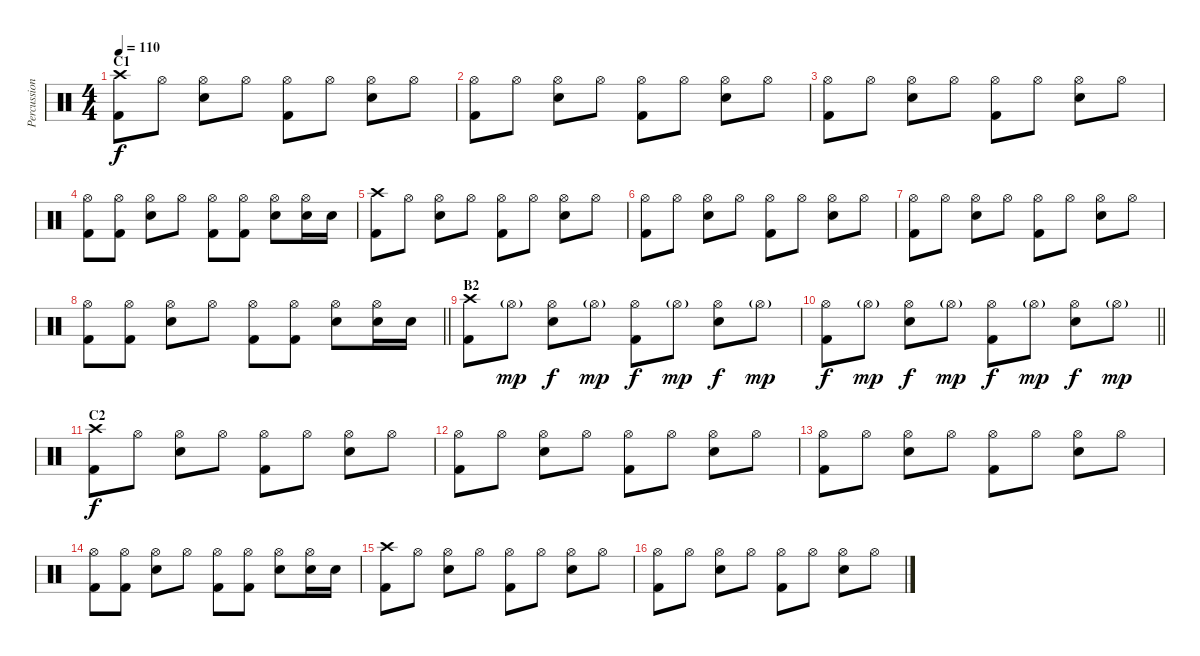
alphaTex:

\track ("Percussion" "Percussion") {instrument percussion}
\staff {score}
\articulation defaults
\ts (4 4)
\section ("" "C1")
\tempo 110
\clef neutral
\ks c
("Crash high (hit)" "Kick (hit) 2").8{dy f} "Hi-Hat (open)".8 ("Hi-Hat (open)" "Snare (hit) 2").8 "Hi-Hat (open)".8 ("Hi-Hat (open)" "Kick (hit) 2").8 "Hi-Hat (open)".8 ("Hi-Hat (open)" "Snare (hit) 2").8 "Hi-Hat (open)".8 |
("Hi-Hat (open)" "Kick (hit) 2").8 "Hi-Hat (open)".8 ("Hi-Hat (open)" "Snare (hit) 2").8 "Hi-Hat (open)".8 ("Hi-Hat (open)" "Kick (hit) 2").8 "Hi-Hat (open)".8 ("Hi-Hat (open)" "Snare (hit) 2").8 "Hi-Hat (open)".8 |
("Hi-Hat (open)" "Kick (hit) 2").8 "Hi-Hat (open)".8 ("Hi-Hat (open)" "Snare (hit) 2").8 "Hi-Hat (open)".8 ("Hi-Hat (open)" "Kick (hit) 2").8 "Hi-Hat (open)".8 ("Hi-Hat (open)" "Snare (hit) 2").8 "Hi-Hat (open)".8 |
("Hi-Hat (open)" "Kick (hit) 2").8 ("Hi-Hat (open)" "Kick (hit) 2").8 ("Hi-Hat (open)" "Snare (hit) 2").8 "Hi-Hat (open)".8 ("Hi-Hat (open)" "Kick (hit) 2").8 ("Hi-Hat (open)" "Kick (hit) 2").8 ("Hi-Hat (open)" "Snare (hit) 2").8 ("Hi-Hat (open)" "Snare (hit) 2").16 "Snare (hit) 2".16 |
("Crash high (hit)" "Kick (hit) 2").8 "Hi-Hat (open)".8 ("Hi-Hat (open)" "Snare (hit) 2").8 "Hi-Hat (open)".8 ("Hi-Hat (open)" "Kick (hit) 2").8 "Hi-Hat (open)".8 ("Hi-Hat (open)" "Snare (hit) 2").8 "Hi-Hat (open)".8 |
("Hi-Hat (open)" "Kick (hit) 2").8 "Hi-Hat (open)".8 ("Hi-Hat (open)" "Snare (hit) 2").8 "Hi-Hat (open)".8 ("Hi-Hat (open)" "Kick (hit) 2").8 "Hi-Hat (open)".8 ("Hi-Hat (open)" "Snare (hit) 2").8 "Hi-Hat (open)".8 |
("Hi-Hat (open)" "Kick (hit) 2").8 "Hi-Hat (open)".8 ("Hi-Hat (open)" "Snare (hit) 2").8 "Hi-Hat (open)".8 ("Hi-Hat (open)" "Kick (hit) 2").8 "Hi-Hat (open)".8 ("Hi-Hat (open)" "Snare (hit) 2").8 "Hi-Hat (open)".8 |
\barLineRight lightlight
("Hi-Hat (open)" "Kick (hit) 2").8 ("Hi-Hat (open)" "Kick (hit) 2").8 ("Hi-Hat (open)" "Snare (hit) 2").8 "Hi-Hat (open)".8 ("Hi-Hat (open)" "Kick (hit) 2").8 ("Hi-Hat (open)" "Kick (hit) 2").8 ("Hi-Hat (open)" "Snare (hit) 2").8 ("Hi-Hat (open)" "Snare (hit) 2").16 "Snare (hit) 2".16 |
\section ("" "B2")
("Crash high (hit)" "Kick (hit) 2").8 "Hi-Hat (open)"{g}.8{dy mp} ("Hi-Hat (open)" "Snare (hit) 2").8{dy f} "Hi-Hat (open)"{g}.8{dy mp} ("Hi-Hat (open)" "Kick (hit) 2").8{dy f} "Hi-Hat (open)"{g}.8{dy mp} ("Hi-Hat (open)" "Snare (hit) 2").8{dy f} "Hi-Hat (open)"{g}.8{dy mp} |
\barLineRight lightlight
("Hi-Hat (open)" "Kick (hit) 2").8{dy f} "Hi-Hat (open)"{g}.8{dy mp} ("Hi-Hat (open)" "Snare (hit) 2").8{dy f} "Hi-Hat (open)"{g}.8{dy mp} ("Hi-Hat (open)" "Kick (hit) 2").8{dy f} "Hi-Hat (open)"{g}.8{dy mp} ("Hi-Hat (open)" "Snare (hit) 2").8{dy f} "Hi-Hat (open)"{g}.8{dy mp} |
\section ("" "C2")
("Crash high (hit)" "Kick (hit) 2").8{dy f} "Hi-Hat (open)".8 ("Hi-Hat (open)" "Snare (hit) 2").8 "Hi-Hat (open)".8 ("Hi-Hat (open)" "Kick (hit) 2").8 "Hi-Hat (open)".8 ("Hi-Hat (open)" "Snare (hit) 2").8 "Hi-Hat (open)".8 |
("Hi-Hat (open)" "Kick (hit) 2").8 "Hi-Hat (open)".8 ("Hi-Hat (open)" "Snare (hit) 2").8 "Hi-Hat (open)".8 ("Hi-Hat (open)" "Kick (hit) 2").8 "Hi-Hat (open)".8 ("Hi-Hat (open)" "Snare (hit) 2").8 "Hi-Hat (open)".8 |
("Hi-Hat (open)" "Kick (hit) 2").8 "Hi-Hat (open)".8 ("Hi-Hat (open)" "Snare (hit) 2").8 "Hi-Hat (open)".8 ("Hi-Hat (open)" "Kick (hit) 2").8 "Hi-Hat (open)".8 ("Hi-Hat (open)" "Snare (hit) 2").8 "Hi-Hat (open)".8 |
("Hi-Hat (open)" "Kick (hit) 2").8 ("Hi-Hat (open)" "Kick (hit) 2").8 ("Hi-Hat (open)" "Snare (hit) 2").8 "Hi-Hat (open)".8 ("Hi-Hat (open)" "Kick (hit) 2").8 ("Hi-Hat (open)" "Kick (hit) 2").8 ("Hi-Hat (open)" "Snare (hit) 2").8 ("Hi-Hat (open)" "Snare (hit) 2").16 "Snare (hit) 2".16 |
("Crash high (hit)" "Kick (hit) 2").8 "Hi-Hat (open)".8 ("Hi-Hat (open)" "Snare (hit) 2").8 "Hi-Hat (open)".8 ("Hi-Hat (open)" "Kick (hit) 2").8 "Hi-Hat (open)".8 ("Hi-Hat (open)" "Snare (hit) 2").8 "Hi-Hat (open)".8 |
("Hi-Hat (open)" "Kick (hit) 2").8 "Hi-Hat (open)".8 ("Hi-Hat (open)" "Snare (hit) 2").8 "Hi-Hat (open)".8 ("Hi-Hat (open)" "Kick (hit) 2").8 "Hi-Hat (open)".8 ("Hi-Hat (open)" "Snare (hit) 2").8 "Hi-Hat (open)".8
